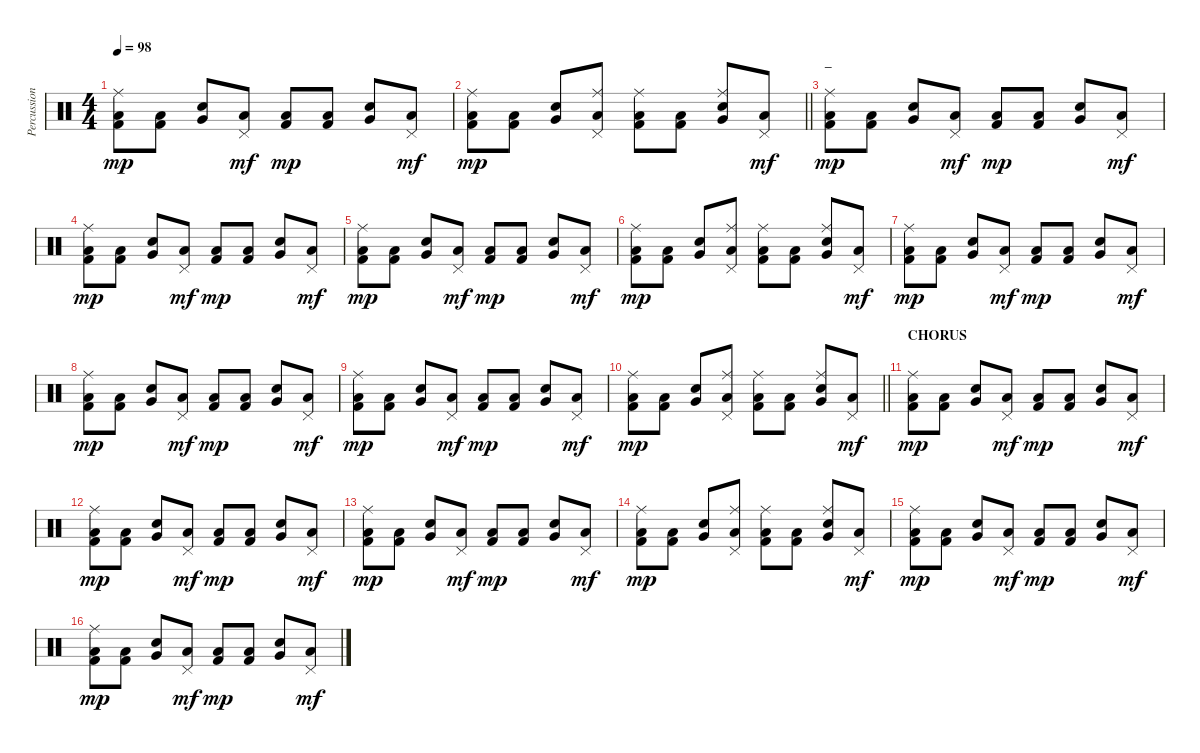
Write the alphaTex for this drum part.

\track ("Percussion" "Percussion") {instrument percussion}
\staff {score}
\articulation defaults
\ts (4 4)
\tempo 98
\clef neutral
\ks c
("Kick (hit) 2" "Low Floor Tom (hit)" "Ride (middle)").8{dy mp} ("Kick (hit) 2" "Low Floor Tom (hit)").8 ("Snare (hit) 2" "Very Low Tom (hit)").8 ("Low Floor Tom (hit)" "Pedal Hi-Hat (hit)").8{dy mf} ("Kick (hit) 2" "Low Floor Tom (hit)").8{dy mp} ("Kick (hit) 2" "Low Floor Tom (hit)").8 ("Snare (hit) 2" "Very Low Tom (hit)").8 ("Low Floor Tom (hit)" "Pedal Hi-Hat (hit)").8{dy mf} |
\barLineRight lightlight
("Kick (hit) 2" "Low Floor Tom (hit)" "Ride (middle)").8{dy mp} ("Kick (hit) 2" "Low Floor Tom (hit)").8 ("Snare (hit) 2" "Very Low Tom (hit)").8 ("Low Floor Tom (hit)" "Pedal Hi-Hat (hit)" "Ride (middle)").8 ("Kick (hit) 2" "Low Floor Tom (hit)" "Ride (middle)").8 ("Kick (hit) 2" "Low Floor Tom (hit)").8 ("Snare (hit) 2" "Very Low Tom (hit)" "Ride (middle)").8 ("Low Floor Tom (hit)" "Pedal Hi-Hat (hit)").8{dy mf} |
\section ("" "_")
("Kick (hit) 2" "Low Floor Tom (hit)" "Ride (middle)").8{dy mp} ("Kick (hit) 2" "Low Floor Tom (hit)").8 ("Snare (hit) 2" "Very Low Tom (hit)").8 ("Low Floor Tom (hit)" "Pedal Hi-Hat (hit)").8{dy mf} ("Kick (hit) 2" "Low Floor Tom (hit)").8{dy mp} ("Kick (hit) 2" "Low Floor Tom (hit)").8 ("Snare (hit) 2" "Very Low Tom (hit)").8 ("Low Floor Tom (hit)" "Pedal Hi-Hat (hit)").8{dy mf} |
("Kick (hit) 2" "Low Floor Tom (hit)" "Ride (middle)").8{dy mp} ("Kick (hit) 2" "Low Floor Tom (hit)").8 ("Snare (hit) 2" "Very Low Tom (hit)").8 ("Low Floor Tom (hit)" "Pedal Hi-Hat (hit)").8{dy mf} ("Kick (hit) 2" "Low Floor Tom (hit)").8{dy mp} ("Kick (hit) 2" "Low Floor Tom (hit)").8 ("Snare (hit) 2" "Very Low Tom (hit)").8 ("Low Floor Tom (hit)" "Pedal Hi-Hat (hit)").8{dy mf} |
("Kick (hit) 2" "Low Floor Tom (hit)" "Ride (middle)").8{dy mp} ("Kick (hit) 2" "Low Floor Tom (hit)").8 ("Snare (hit) 2" "Very Low Tom (hit)").8 ("Low Floor Tom (hit)" "Pedal Hi-Hat (hit)").8{dy mf} ("Kick (hit) 2" "Low Floor Tom (hit)").8{dy mp} ("Kick (hit) 2" "Low Floor Tom (hit)").8 ("Snare (hit) 2" "Very Low Tom (hit)").8 ("Low Floor Tom (hit)" "Pedal Hi-Hat (hit)").8{dy mf} |
("Kick (hit) 2" "Low Floor Tom (hit)" "Ride (middle)").8{dy mp} ("Kick (hit) 2" "Low Floor Tom (hit)").8 ("Snare (hit) 2" "Very Low Tom (hit)").8 ("Low Floor Tom (hit)" "Pedal Hi-Hat (hit)" "Ride (middle)").8 ("Kick (hit) 2" "Low Floor Tom (hit)" "Ride (middle)").8 ("Kick (hit) 2" "Low Floor Tom (hit)").8 ("Snare (hit) 2" "Very Low Tom (hit)" "Ride (middle)").8 ("Low Floor Tom (hit)" "Pedal Hi-Hat (hit)").8{dy mf} |
("Kick (hit) 2" "Low Floor Tom (hit)" "Ride (middle)").8{dy mp} ("Kick (hit) 2" "Low Floor Tom (hit)").8 ("Snare (hit) 2" "Very Low Tom (hit)").8 ("Low Floor Tom (hit)" "Pedal Hi-Hat (hit)").8{dy mf} ("Kick (hit) 2" "Low Floor Tom (hit)").8{dy mp} ("Kick (hit) 2" "Low Floor Tom (hit)").8 ("Snare (hit) 2" "Very Low Tom (hit)").8 ("Low Floor Tom (hit)" "Pedal Hi-Hat (hit)").8{dy mf} |
("Kick (hit) 2" "Low Floor Tom (hit)" "Ride (middle)").8{dy mp} ("Kick (hit) 2" "Low Floor Tom (hit)").8 ("Snare (hit) 2" "Very Low Tom (hit)").8 ("Low Floor Tom (hit)" "Pedal Hi-Hat (hit)").8{dy mf} ("Kick (hit) 2" "Low Floor Tom (hit)").8{dy mp} ("Kick (hit) 2" "Low Floor Tom (hit)").8 ("Snare (hit) 2" "Very Low Tom (hit)").8 ("Low Floor Tom (hit)" "Pedal Hi-Hat (hit)").8{dy mf} |
("Kick (hit) 2" "Low Floor Tom (hit)" "Ride (middle)").8{dy mp} ("Kick (hit) 2" "Low Floor Tom (hit)").8 ("Snare (hit) 2" "Very Low Tom (hit)").8 ("Low Floor Tom (hit)" "Pedal Hi-Hat (hit)").8{dy mf} ("Kick (hit) 2" "Low Floor Tom (hit)").8{dy mp} ("Kick (hit) 2" "Low Floor Tom (hit)").8 ("Snare (hit) 2" "Very Low Tom (hit)").8 ("Low Floor Tom (hit)" "Pedal Hi-Hat (hit)").8{dy mf} |
\barLineRight lightlight
("Kick (hit) 2" "Low Floor Tom (hit)" "Ride (middle)").8{dy mp} ("Kick (hit) 2" "Low Floor Tom (hit)").8 ("Snare (hit) 2" "Very Low Tom (hit)").8 ("Low Floor Tom (hit)" "Pedal Hi-Hat (hit)" "Ride (middle)").8 ("Kick (hit) 2" "Low Floor Tom (hit)" "Ride (middle)").8 ("Kick (hit) 2" "Low Floor Tom (hit)").8 ("Snare (hit) 2" "Very Low Tom (hit)" "Ride (middle)").8 ("Low Floor Tom (hit)" "Pedal Hi-Hat (hit)").8{dy mf} |
\section ("" "CHORUS")
("Kick (hit) 2" "Low Floor Tom (hit)" "Ride (middle)").8{dy mp} ("Kick (hit) 2" "Low Floor Tom (hit)").8 ("Snare (hit) 2" "Very Low Tom (hit)").8 ("Low Floor Tom (hit)" "Pedal Hi-Hat (hit)").8{dy mf} ("Kick (hit) 2" "Low Floor Tom (hit)").8{dy mp} ("Kick (hit) 2" "Low Floor Tom (hit)").8 ("Snare (hit) 2" "Very Low Tom (hit)").8 ("Low Floor Tom (hit)" "Pedal Hi-Hat (hit)").8{dy mf} |
("Kick (hit) 2" "Low Floor Tom (hit)" "Ride (middle)").8{dy mp} ("Kick (hit) 2" "Low Floor Tom (hit)").8 ("Snare (hit) 2" "Very Low Tom (hit)").8 ("Low Floor Tom (hit)" "Pedal Hi-Hat (hit)").8{dy mf} ("Kick (hit) 2" "Low Floor Tom (hit)").8{dy mp} ("Kick (hit) 2" "Low Floor Tom (hit)").8 ("Snare (hit) 2" "Very Low Tom (hit)").8 ("Low Floor Tom (hit)" "Pedal Hi-Hat (hit)").8{dy mf} |
("Kick (hit) 2" "Low Floor Tom (hit)" "Ride (middle)").8{dy mp} ("Kick (hit) 2" "Low Floor Tom (hit)").8 ("Snare (hit) 2" "Very Low Tom (hit)").8 ("Low Floor Tom (hit)" "Pedal Hi-Hat (hit)").8{dy mf} ("Kick (hit) 2" "Low Floor Tom (hit)").8{dy mp} ("Kick (hit) 2" "Low Floor Tom (hit)").8 ("Snare (hit) 2" "Very Low Tom (hit)").8 ("Low Floor Tom (hit)" "Pedal Hi-Hat (hit)").8{dy mf} |
("Kick (hit) 2" "Low Floor Tom (hit)" "Ride (middle)").8{dy mp} ("Kick (hit) 2" "Low Floor Tom (hit)").8 ("Snare (hit) 2" "Very Low Tom (hit)").8 ("Low Floor Tom (hit)" "Pedal Hi-Hat (hit)" "Ride (middle)").8 ("Kick (hit) 2" "Low Floor Tom (hit)" "Ride (middle)").8 ("Kick (hit) 2" "Low Floor Tom (hit)").8 ("Snare (hit) 2" "Very Low Tom (hit)" "Ride (middle)").8 ("Low Floor Tom (hit)" "Pedal Hi-Hat (hit)").8{dy mf} |
("Kick (hit) 2" "Low Floor Tom (hit)" "Ride (middle)").8{dy mp} ("Kick (hit) 2" "Low Floor Tom (hit)").8 ("Snare (hit) 2" "Very Low Tom (hit)").8 ("Low Floor Tom (hit)" "Pedal Hi-Hat (hit)").8{dy mf} ("Kick (hit) 2" "Low Floor Tom (hit)").8{dy mp} ("Kick (hit) 2" "Low Floor Tom (hit)").8 ("Snare (hit) 2" "Very Low Tom (hit)").8 ("Low Floor Tom (hit)" "Pedal Hi-Hat (hit)").8{dy mf} |
("Kick (hit) 2" "Low Floor Tom (hit)" "Ride (middle)").8{dy mp} ("Kick (hit) 2" "Low Floor Tom (hit)").8 ("Snare (hit) 2" "Very Low Tom (hit)").8 ("Low Floor Tom (hit)" "Pedal Hi-Hat (hit)").8{dy mf} ("Kick (hit) 2" "Low Floor Tom (hit)").8{dy mp} ("Kick (hit) 2" "Low Floor Tom (hit)").8 ("Snare (hit) 2" "Very Low Tom (hit)").8 ("Low Floor Tom (hit)" "Pedal Hi-Hat (hit)").8{dy mf}
